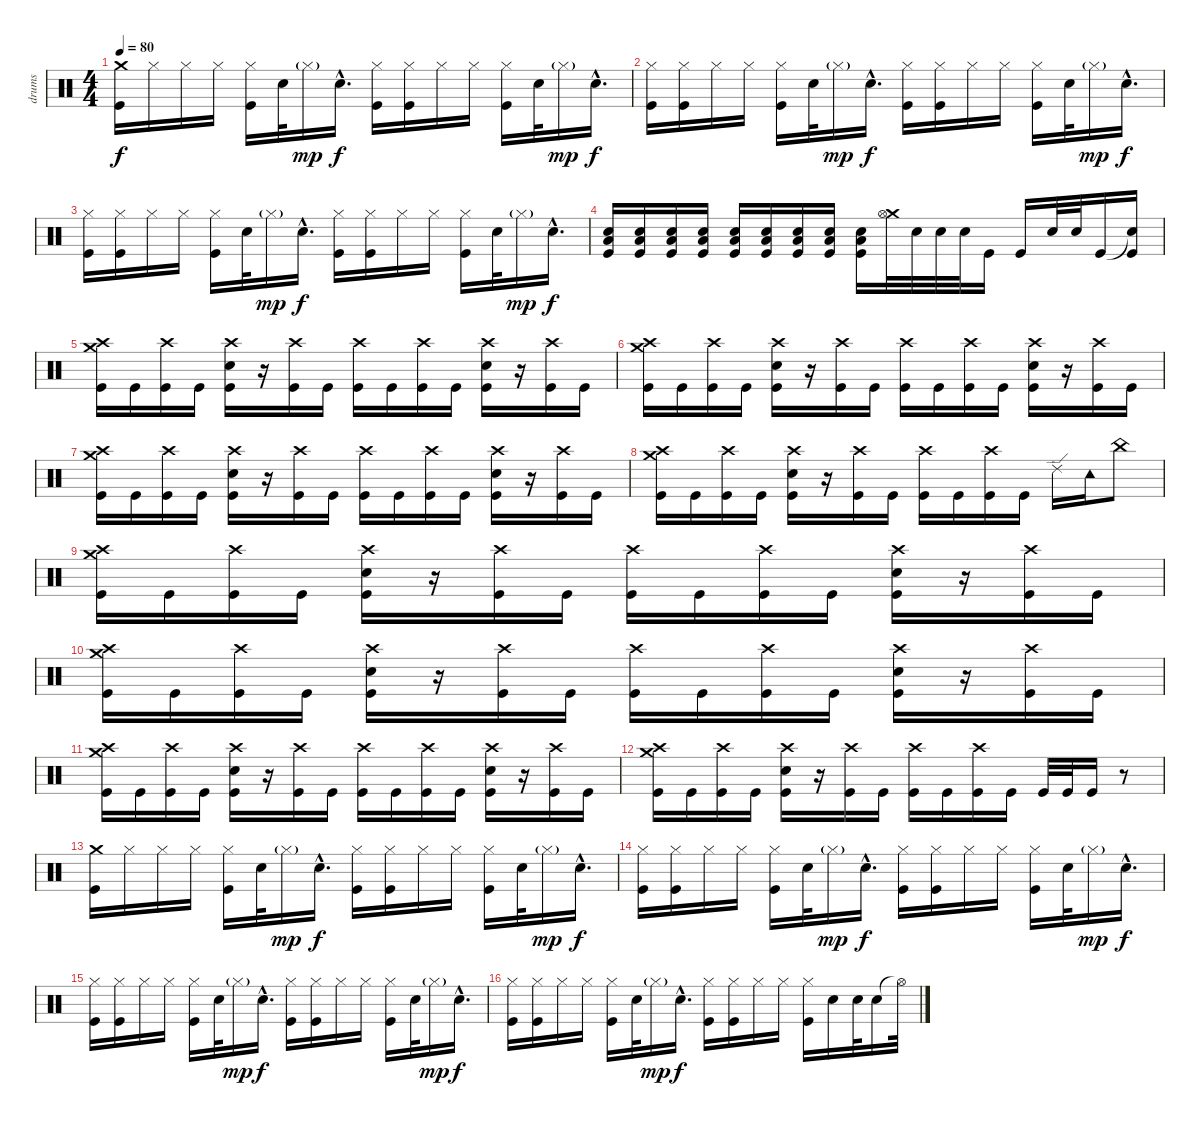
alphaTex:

\track ("drums" "drums") {instrument percussion}
\staff {score}
\articulation defaults
\ts (4 4)
\tempo 80
\clef neutral
\ks c
("Crash medium (hit)" "Kick (hit)").16{dy f} "Hi-Hat (closed)".16 "Hi-Hat (closed)".16 "Hi-Hat (closed)".16 ("Hi-Hat (closed)" "Kick (hit)").16 "Snare (hit) 2".32 "Hi-Hat (closed)"{g}.16{dy mp} "Snare (hit) 2"{hac}.16{d dy f} ("Hi-Hat (closed)" "Kick (hit)").16 ("Hi-Hat (closed)" "Kick (hit)").16 "Hi-Hat (closed)".16 "Hi-Hat (closed)".16 ("Hi-Hat (closed)" "Kick (hit)").16 "Snare (hit) 2".32 "Hi-Hat (closed)"{g}.16{dy mp} "Snare (hit) 2"{hac}.16{d dy f} |
("Hi-Hat (closed)" "Kick (hit)").16 ("Hi-Hat (closed)" "Kick (hit)").16 "Hi-Hat (closed)".16 "Hi-Hat (closed)".16 ("Hi-Hat (closed)" "Kick (hit)").16 "Snare (hit) 2".32 "Hi-Hat (closed)"{g}.16{dy mp} "Snare (hit) 2"{hac}.16{d dy f} ("Hi-Hat (closed)" "Kick (hit)").16 ("Hi-Hat (closed)" "Kick (hit)").16 "Hi-Hat (closed)".16 "Hi-Hat (closed)".16 ("Hi-Hat (closed)" "Kick (hit)").16 "Snare (hit) 2".32 "Hi-Hat (closed)"{g}.16{dy mp} "Snare (hit) 2"{hac}.16{d dy f} |
("Hi-Hat (closed)" "Kick (hit)").16 ("Hi-Hat (closed)" "Kick (hit)").16 "Hi-Hat (closed)".16 "Hi-Hat (closed)".16 ("Hi-Hat (closed)" "Kick (hit)").16 "Snare (hit) 2".32 "Hi-Hat (closed)"{g}.16{dy mp} "Snare (hit) 2"{hac}.16{d dy f} ("Hi-Hat (closed)" "Kick (hit)").16 ("Hi-Hat (closed)" "Kick (hit)").16 "Hi-Hat (closed)".16 "Hi-Hat (closed)".16 ("Hi-Hat (closed)" "Kick (hit)").16 "Snare (hit) 2".32 "Hi-Hat (closed)"{g}.16{dy mp} "Snare (hit) 2"{hac}.16{d dy f} |
("Snare (hit) 2" "Low Floor Tom (hit)" "Kick (hit)").16 ("Snare (hit) 2" "Low Floor Tom (hit)" "Kick (hit)").16 ("Snare (hit) 2" "Low Floor Tom (hit)" "Kick (hit)").16 ("Snare (hit) 2" "Low Floor Tom (hit)" "Kick (hit)").16 ("Snare (hit) 2" "Low Floor Tom (hit)" "Kick (hit)").16 ("Snare (hit) 2" "Low Floor Tom (hit)" "Kick (hit)").16 ("Snare (hit) 2" "Low Floor Tom (hit)" "Kick (hit)").16 ("Snare (hit) 2" "Low Floor Tom (hit)" "Kick (hit)").16 ("Snare (hit) 2" "Low Floor Tom (hit)" "Kick (hit)").16 ("Crash medium (hit)" "Hi-Hat (open)").32 "Snare (hit) 2".32 "Snare (hit) 2".32 "Snare (hit) 2".32 "Kick (hit)".16 "Kick (hit)".16 "Snare (hit) 2".32 "Snare (hit) 2".32 "Kick (hit)".16 ("Snare (hit)"{t} "Kick (hit)").16 |
("Crash medium (hit)" "Crash high (hit)" "Kick (hit)").16 "Kick (hit)".16 ("Crash high (hit)" "Kick (hit)").16 "Kick (hit)".16 ("Crash high (hit)" "Snare (hit) 2" "Kick (hit)").16 r.16 ("Crash high (hit)" "Kick (hit)").16 "Kick (hit)".16 ("Crash high (hit)" "Kick (hit)").16 "Kick (hit)".16 ("Crash high (hit)" "Kick (hit)").16 "Kick (hit)".16 ("Crash high (hit)" "Snare (hit) 2" "Kick (hit)").16 r.16 ("Crash high (hit)" "Kick (hit)").16 "Kick (hit)".16 |
("Crash medium (hit)" "Crash high (hit)" "Kick (hit)").16 "Kick (hit)".16 ("Crash high (hit)" "Kick (hit)").16 "Kick (hit)".16 ("Crash high (hit)" "Snare (hit) 2" "Kick (hit)").16 r.16 ("Crash high (hit)" "Kick (hit)").16 "Kick (hit)".16 ("Crash high (hit)" "Kick (hit)").16 "Kick (hit)".16 ("Crash high (hit)" "Kick (hit)").16 "Kick (hit)".16 ("Crash high (hit)" "Snare (hit) 2" "Kick (hit)").16 r.16 ("Crash high (hit)" "Kick (hit)").16 "Kick (hit)".16 |
("Crash medium (hit)" "Crash high (hit)" "Kick (hit)").16 "Kick (hit)".16 ("Crash high (hit)" "Kick (hit)").16 "Kick (hit)".16 ("Crash high (hit)" "Snare (hit) 2" "Kick (hit)").16 r.16 ("Crash high (hit)" "Kick (hit)").16 "Kick (hit)".16 ("Crash high (hit)" "Kick (hit)").16 "Kick (hit)".16 ("Crash high (hit)" "Kick (hit)").16 "Kick (hit)".16 ("Crash high (hit)" "Snare (hit) 2" "Kick (hit)").16 r.16 ("Crash high (hit)" "Kick (hit)").16 "Kick (hit)".16 |
("Crash medium (hit)" "Crash high (hit)" "Kick (hit)").16 "Kick (hit)".16 ("Crash high (hit)" "Kick (hit)").16 "Kick (hit)".16 ("Crash high (hit)" "Snare (hit) 2" "Kick (hit)").16 r.16 ("Crash high (hit)" "Kick (hit)").16 "Kick (hit)".16 ("Crash high (hit)" "Kick (hit)").16 "Kick (hit)".16 ("Crash high (hit)" "Kick (hit)").16 "Kick (hit)".16 "Ride (edge) 2".16 "Tambourine (hit)".16 "China (hit)".8 |
("Crash medium (hit)" "Crash high (hit)" "Kick (hit)").16 "Kick (hit)".16 ("Crash high (hit)" "Kick (hit)").16 "Kick (hit)".16 ("Crash high (hit)" "Snare (hit) 2" "Kick (hit)").16 r.16 ("Crash high (hit)" "Kick (hit)").16 "Kick (hit)".16 ("Crash high (hit)" "Kick (hit)").16 "Kick (hit)".16 ("Crash high (hit)" "Kick (hit)").16 "Kick (hit)".16 ("Crash high (hit)" "Snare (hit) 2" "Kick (hit)").16 r.16 ("Crash high (hit)" "Kick (hit)").16 "Kick (hit)".16 |
("Crash medium (hit)" "Crash high (hit)" "Kick (hit)").16 "Kick (hit)".16 ("Crash high (hit)" "Kick (hit)").16 "Kick (hit)".16 ("Crash high (hit)" "Snare (hit) 2" "Kick (hit)").16 r.16 ("Crash high (hit)" "Kick (hit)").16 "Kick (hit)".16 ("Crash high (hit)" "Kick (hit)").16 "Kick (hit)".16 ("Crash high (hit)" "Kick (hit)").16 "Kick (hit)".16 ("Crash high (hit)" "Snare (hit) 2" "Kick (hit)").16 r.16 ("Crash high (hit)" "Kick (hit)").16 "Kick (hit)".16 |
("Crash medium (hit)" "Crash high (hit)" "Kick (hit)").16 "Kick (hit)".16 ("Crash high (hit)" "Kick (hit)").16 "Kick (hit)".16 ("Crash high (hit)" "Snare (hit) 2" "Kick (hit)").16 r.16 ("Crash high (hit)" "Kick (hit)").16 "Kick (hit)".16 ("Crash high (hit)" "Kick (hit)").16 "Kick (hit)".16 ("Crash high (hit)" "Kick (hit)").16 "Kick (hit)".16 ("Crash high (hit)" "Snare (hit) 2" "Kick (hit)").16 r.16 ("Crash high (hit)" "Kick (hit)").16 "Kick (hit)".16 |
("Crash medium (hit)" "Crash high (hit)" "Kick (hit)").16 "Kick (hit)".16 ("Crash high (hit)" "Kick (hit)").16 "Kick (hit)".16 ("Crash high (hit)" "Snare (hit) 2" "Kick (hit)").16 r.16 ("Crash high (hit)" "Kick (hit)").16 "Kick (hit)".16 ("Crash high (hit)" "Kick (hit)").16 "Kick (hit)".16 ("Crash high (hit)" "Kick (hit)").16 "Kick (hit)".16 "Kick (hit)".32 "Kick (hit)".32 "Kick (hit)".16 r.8 |
("Crash medium (hit)" "Kick (hit)").16 "Hi-Hat (closed)".16 "Hi-Hat (closed)".16 "Hi-Hat (closed)".16 ("Hi-Hat (closed)" "Kick (hit)").16 "Snare (hit) 2".32 "Hi-Hat (closed)"{g}.16{dy mp} "Snare (hit) 2"{hac}.16{d dy f} ("Hi-Hat (closed)" "Kick (hit)").16 ("Hi-Hat (closed)" "Kick (hit)").16 "Hi-Hat (closed)".16 "Hi-Hat (closed)".16 ("Hi-Hat (closed)" "Kick (hit)").16 "Snare (hit) 2".32 "Hi-Hat (closed)"{g}.16{dy mp} "Snare (hit) 2"{hac}.16{d dy f} |
("Hi-Hat (closed)" "Kick (hit)").16 ("Hi-Hat (closed)" "Kick (hit)").16 "Hi-Hat (closed)".16 "Hi-Hat (closed)".16 ("Hi-Hat (closed)" "Kick (hit)").16 "Snare (hit) 2".32 "Hi-Hat (closed)"{g}.16{dy mp} "Snare (hit) 2"{hac}.16{d dy f} ("Hi-Hat (closed)" "Kick (hit)").16 ("Hi-Hat (closed)" "Kick (hit)").16 "Hi-Hat (closed)".16 "Hi-Hat (closed)".16 ("Hi-Hat (closed)" "Kick (hit)").16 "Snare (hit) 2".32 "Hi-Hat (closed)"{g}.16{dy mp} "Snare (hit) 2"{hac}.16{d dy f} |
("Hi-Hat (closed)" "Kick (hit)").16 ("Hi-Hat (closed)" "Kick (hit)").16 "Hi-Hat (closed)".16 "Hi-Hat (closed)".16 ("Hi-Hat (closed)" "Kick (hit)").16 "Snare (hit) 2".32 "Hi-Hat (closed)"{g}.16{dy mp} "Snare (hit) 2"{hac}.16{d dy f} ("Hi-Hat (closed)" "Kick (hit)").16 ("Hi-Hat (closed)" "Kick (hit)").16 "Hi-Hat (closed)".16 "Hi-Hat (closed)".16 ("Hi-Hat (closed)" "Kick (hit)").16 "Snare (hit) 2".32 "Hi-Hat (closed)"{g}.16{dy mp} "Snare (hit) 2"{hac}.16{d dy f} |
("Hi-Hat (closed)" "Kick (hit)").16 ("Hi-Hat (closed)" "Kick (hit)").16 "Hi-Hat (closed)".16 "Hi-Hat (closed)".16 ("Hi-Hat (closed)" "Kick (hit)").16 "Snare (hit) 2".32 "Hi-Hat (closed)"{g}.16{dy mp} "Snare (hit) 2"{hac}.16{d dy f} ("Hi-Hat (closed)" "Kick (hit)").16 ("Hi-Hat (closed)" "Kick (hit)").16 "Hi-Hat (closed)".16 "Hi-Hat (closed)".16 ("Hi-Hat (closed)" "Kick (hit)").16 "Snare (hit) 2".16 "Snare (hit) 2".32 "Snare (hit) 2".16 "Hi-Hat (open)"{t}.32
